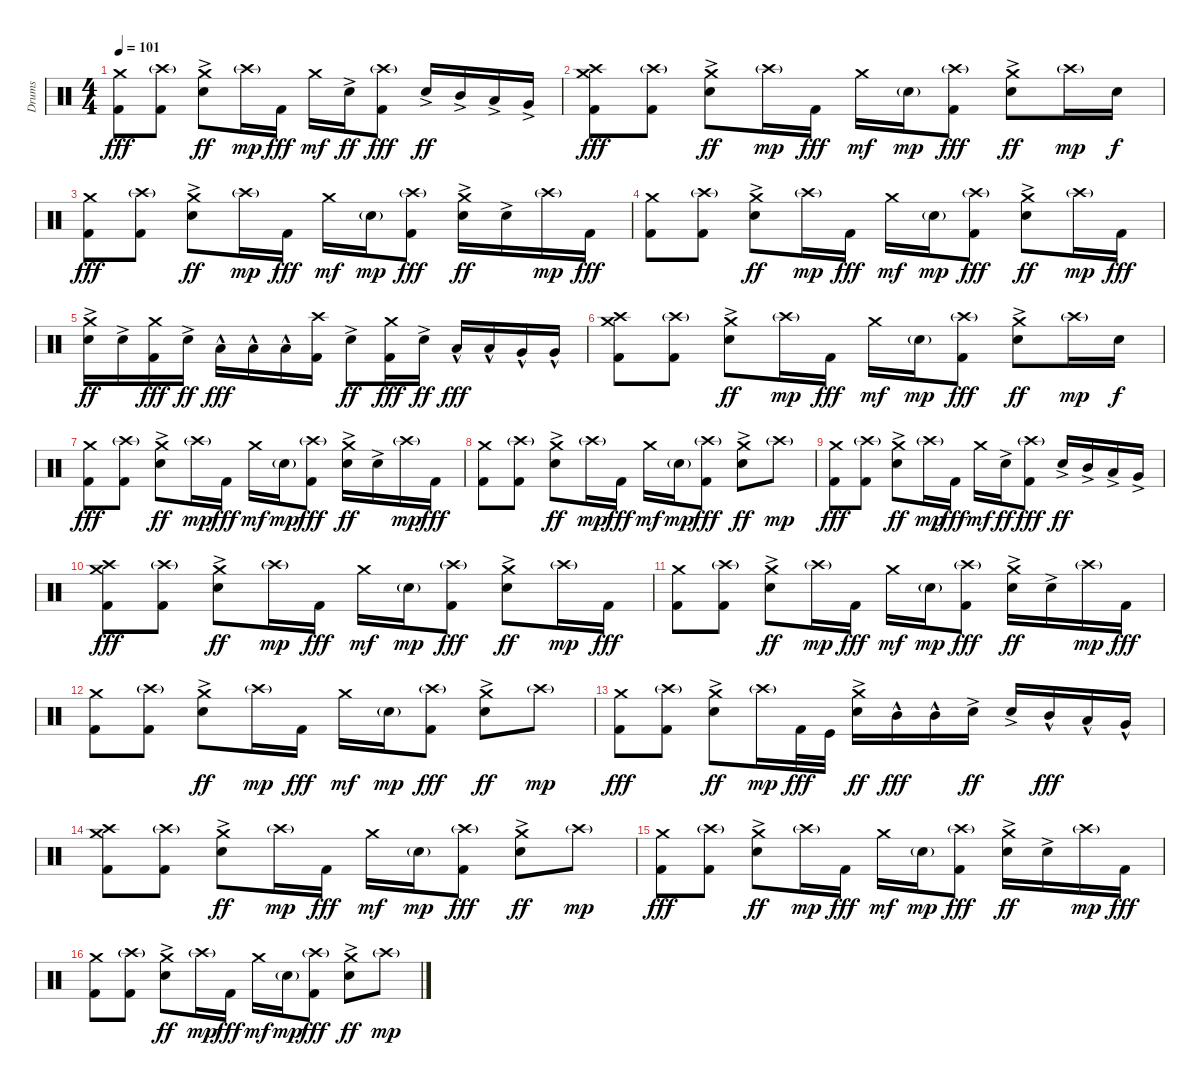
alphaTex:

\track ("Drums" "Drums") {instrument percussion}
\staff {score}
\articulation defaults
\ts (4 4)
\tempo 101
\clef neutral
\ks c
("Crash medium (hit)" "Kick (hit) 2").8{dy fff} ("Crash high (hit)"{g} "Kick (hit) 2").8 ("Crash medium (hit)" "Electric Snare (hit)"{ac}).8{dy ff} "Crash high (hit)"{g}.16{dy mp} "Kick (hit) 2".16{dy fff} "Crash medium (hit)".16{dy mf} "Electric Snare (hit)"{ac}.16{dy ff} ("Crash high (hit)"{g} "Kick (hit) 2").8{dy fff} "Electric Snare (hit)"{ac}.16{dy ff} "Mid Tom (hit)"{ac}.16 "Low Tom (hit)"{ac}.16 "Very Low Tom (hit)"{ac}.16 |
("Crash medium (hit)" "Crash high (hit)" "Kick (hit) 2").8{dy fff} ("Crash high (hit)"{g} "Kick (hit) 2").8 ("Crash medium (hit)" "Electric Snare (hit)"{ac}).8{dy ff} "Crash high (hit)"{g}.16{dy mp} "Kick (hit) 2".16{dy fff} "Crash medium (hit)".16{dy mf} "Snare (hit) 2"{g}.16{dy mp} ("Crash high (hit)"{g} "Kick (hit) 2").8{dy fff} ("Crash medium (hit)" "Electric Snare (hit)"{ac}).8{dy ff} "Crash high (hit)"{g}.16{dy mp} "Electric Snare (hit)".16{dy f} |
("Crash medium (hit)" "Kick (hit) 2").8{dy fff} ("Crash high (hit)"{g} "Kick (hit) 2").8 ("Crash medium (hit)" "Electric Snare (hit)"{ac}).8{dy ff} "Crash high (hit)"{g}.16{dy mp} "Kick (hit) 2".16{dy fff} "Crash medium (hit)".16{dy mf} "Snare (hit) 2"{g}.16{dy mp} ("Crash high (hit)"{g} "Kick (hit) 2").8{dy fff} ("Crash medium (hit)" "Electric Snare (hit)"{ac}).16{dy ff} "Electric Snare (hit)"{ac}.16 "Crash high (hit)"{g}.16{dy mp} "Kick (hit) 2".16{dy fff} |
("Crash medium (hit)" "Kick (hit) 2").8 ("Crash high (hit)"{g} "Kick (hit) 2").8 ("Crash medium (hit)" "Electric Snare (hit)"{ac}).8{dy ff} "Crash high (hit)"{g}.16{dy mp} "Kick (hit) 2".16{dy fff} "Crash medium (hit)".16{dy mf} "Snare (hit) 2"{g}.16{dy mp} ("Crash high (hit)"{g} "Kick (hit) 2").8{dy fff} ("Crash medium (hit)" "Electric Snare (hit)"{ac}).8{dy ff} "Crash high (hit)"{g}.16{dy mp} "Kick (hit) 2".16{dy fff} |
("Crash medium (hit)" "Electric Snare (hit)"{ac}).16{dy ff} "Electric Snare (hit)"{ac}.16 ("Crash medium (hit)" "Kick (hit) 2").16{dy fff} "Electric Snare (hit)"{ac}.16{dy ff} "Low Tom (hit)"{hac}.16{dy fff} "Low Tom (hit)"{hac}.16 "Low Tom (hit)"{hac}.16 ("Crash high (hit)" "Kick (hit) 2").16 "Electric Snare (hit)"{ac}.8{dy ff} ("Crash medium (hit)" "Kick (hit) 2").16{dy fff} "Electric Snare (hit)"{ac}.16{dy ff} "Low Tom (hit)"{hac}.16{dy fff} "Low Tom (hit)"{hac}.16 "Very Low Tom (hit)"{hac}.16 "Very Low Tom (hit)"{hac}.16 |
("Crash medium (hit)" "Crash high (hit)" "Kick (hit) 2").8 ("Crash high (hit)"{g} "Kick (hit) 2").8 ("Crash medium (hit)" "Electric Snare (hit)"{ac}).8{dy ff} "Crash high (hit)"{g}.16{dy mp} "Kick (hit) 2".16{dy fff} "Crash medium (hit)".16{dy mf} "Snare (hit) 2"{g}.16{dy mp} ("Crash high (hit)"{g} "Kick (hit) 2").8{dy fff} ("Crash medium (hit)" "Electric Snare (hit)"{ac}).8{dy ff} "Crash high (hit)"{g}.16{dy mp} "Electric Snare (hit)".16{dy f} |
("Crash medium (hit)" "Kick (hit) 2").8{dy fff} ("Crash high (hit)"{g} "Kick (hit) 2").8 ("Crash medium (hit)" "Electric Snare (hit)"{ac}).8{dy ff} "Crash high (hit)"{g}.16{dy mp} "Kick (hit) 2".16{dy fff} "Crash medium (hit)".16{dy mf} "Snare (hit) 2"{g}.16{dy mp} ("Crash high (hit)"{g} "Kick (hit) 2").8{dy fff} ("Crash medium (hit)" "Electric Snare (hit)"{ac}).16{dy ff} "Electric Snare (hit)"{ac}.16 "Crash high (hit)"{g}.16{dy mp} "Kick (hit) 2".16{dy fff} |
("Crash medium (hit)" "Kick (hit) 2").8 ("Crash high (hit)"{g} "Kick (hit) 2").8 ("Crash medium (hit)" "Electric Snare (hit)"{ac}).8{dy ff} "Crash high (hit)"{g}.16{dy mp} "Kick (hit) 2".16{dy fff} "Crash medium (hit)".16{dy mf} "Snare (hit) 2"{g}.16{dy mp} ("Crash high (hit)"{g} "Kick (hit) 2").8{dy fff} ("Crash medium (hit)" "Electric Snare (hit)"{ac}).8{dy ff} "Crash high (hit)"{g}.8{dy mp} |
("Crash medium (hit)" "Kick (hit) 2").8{dy fff} ("Crash high (hit)"{g} "Kick (hit) 2").8 ("Crash medium (hit)" "Electric Snare (hit)"{ac}).8{dy ff} "Crash high (hit)"{g}.16{dy mp} "Kick (hit) 2".16{dy fff} "Crash medium (hit)".16{dy mf} "Electric Snare (hit)"{ac}.16{dy ff} ("Crash high (hit)"{g} "Kick (hit) 2").8{dy fff} "Electric Snare (hit)"{ac}.16{dy ff} "Mid Tom (hit)"{ac}.16 "Low Tom (hit)"{ac}.16 "Very Low Tom (hit)"{ac}.16 |
("Crash medium (hit)" "Crash high (hit)" "Kick (hit) 2").8{dy fff} ("Crash high (hit)"{g} "Kick (hit) 2").8 ("Crash medium (hit)" "Electric Snare (hit)"{ac}).8{dy ff} "Crash high (hit)"{g}.16{dy mp} "Kick (hit) 2".16{dy fff} "Crash medium (hit)".16{dy mf} "Snare (hit) 2"{g}.16{dy mp} ("Crash high (hit)"{g} "Kick (hit) 2").8{dy fff} ("Crash medium (hit)" "Electric Snare (hit)"{ac}).8{dy ff} "Crash high (hit)"{g}.16{dy mp} "Kick (hit) 2".16{dy fff} |
("Crash medium (hit)" "Kick (hit) 2").8 ("Crash high (hit)"{g} "Kick (hit) 2").8 ("Crash medium (hit)" "Electric Snare (hit)"{ac}).8{dy ff} "Crash high (hit)"{g}.16{dy mp} "Kick (hit) 2".16{dy fff} "Crash medium (hit)".16{dy mf} "Snare (hit) 2"{g}.16{dy mp} ("Crash high (hit)"{g} "Kick (hit) 2").8{dy fff} ("Crash medium (hit)" "Electric Snare (hit)"{ac}).16{dy ff} "Electric Snare (hit)"{ac}.16 "Crash high (hit)"{g}.16{dy mp} "Kick (hit) 2".16{dy fff} |
("Crash medium (hit)" "Kick (hit) 2").8 ("Crash high (hit)"{g} "Kick (hit) 2").8 ("Crash medium (hit)" "Electric Snare (hit)"{ac}).8{dy ff} "Crash high (hit)"{g}.16{dy mp} "Kick (hit) 2".16{dy fff} "Crash medium (hit)".16{dy mf} "Snare (hit) 2"{g}.16{dy mp} ("Crash high (hit)"{g} "Kick (hit) 2").8{dy fff} ("Crash medium (hit)" "Electric Snare (hit)"{ac}).8{dy ff} "Crash high (hit)"{g}.8{dy mp} |
("Crash medium (hit)" "Kick (hit) 2").8{dy fff} ("Crash high (hit)"{g} "Kick (hit) 2").8 ("Crash medium (hit)" "Electric Snare (hit)"{ac}).8{dy ff} "Crash high (hit)"{g}.16{dy mp} "Kick (hit) 2".32{dy fff} "Kick (hit)".32 ("Crash medium (hit)" "Electric Snare (hit)"{ac}).16{dy ff} "Mid Tom (hit)"{hac}.16{dy fff} "Mid Tom (hit)"{hac}.16 "Electric Snare (hit)"{ac}.16{dy ff} "Electric Snare (hit)"{ac}.16 "Mid Tom (hit)"{hac}.16{dy fff} "Low Tom (hit)"{hac}.16 "Very Low Tom (hit)"{hac}.16 |
("Crash medium (hit)" "Crash high (hit)" "Kick (hit) 2").8 ("Crash high (hit)"{g} "Kick (hit) 2").8 ("Crash medium (hit)" "Electric Snare (hit)"{ac}).8{dy ff} "Crash high (hit)"{g}.16{dy mp} "Kick (hit) 2".16{dy fff} "Crash medium (hit)".16{dy mf} "Snare (hit) 2"{g}.16{dy mp} ("Crash high (hit)"{g} "Kick (hit) 2").8{dy fff} ("Crash medium (hit)" "Electric Snare (hit)"{ac}).8{dy ff} "Crash high (hit)"{g}.8{dy mp} |
("Crash medium (hit)" "Kick (hit) 2").8{dy fff} ("Crash high (hit)"{g} "Kick (hit) 2").8 ("Crash medium (hit)" "Electric Snare (hit)"{ac}).8{dy ff} "Crash high (hit)"{g}.16{dy mp} "Kick (hit) 2".16{dy fff} "Crash medium (hit)".16{dy mf} "Snare (hit) 2"{g}.16{dy mp} ("Crash high (hit)"{g} "Kick (hit) 2").8{dy fff} ("Crash medium (hit)" "Electric Snare (hit)"{ac}).16{dy ff} "Electric Snare (hit)"{ac}.16 "Crash high (hit)"{g}.16{dy mp} "Kick (hit) 2".16{dy fff} |
("Crash medium (hit)" "Kick (hit) 2").8 ("Crash high (hit)"{g} "Kick (hit) 2").8 ("Crash medium (hit)" "Electric Snare (hit)"{ac}).8{dy ff} "Crash high (hit)"{g}.16{dy mp} "Kick (hit) 2".16{dy fff} "Crash medium (hit)".16{dy mf} "Snare (hit) 2"{g}.16{dy mp} ("Crash high (hit)"{g} "Kick (hit) 2").8{dy fff} ("Crash medium (hit)" "Electric Snare (hit)"{ac}).8{dy ff} "Crash high (hit)"{g}.8{dy mp}
